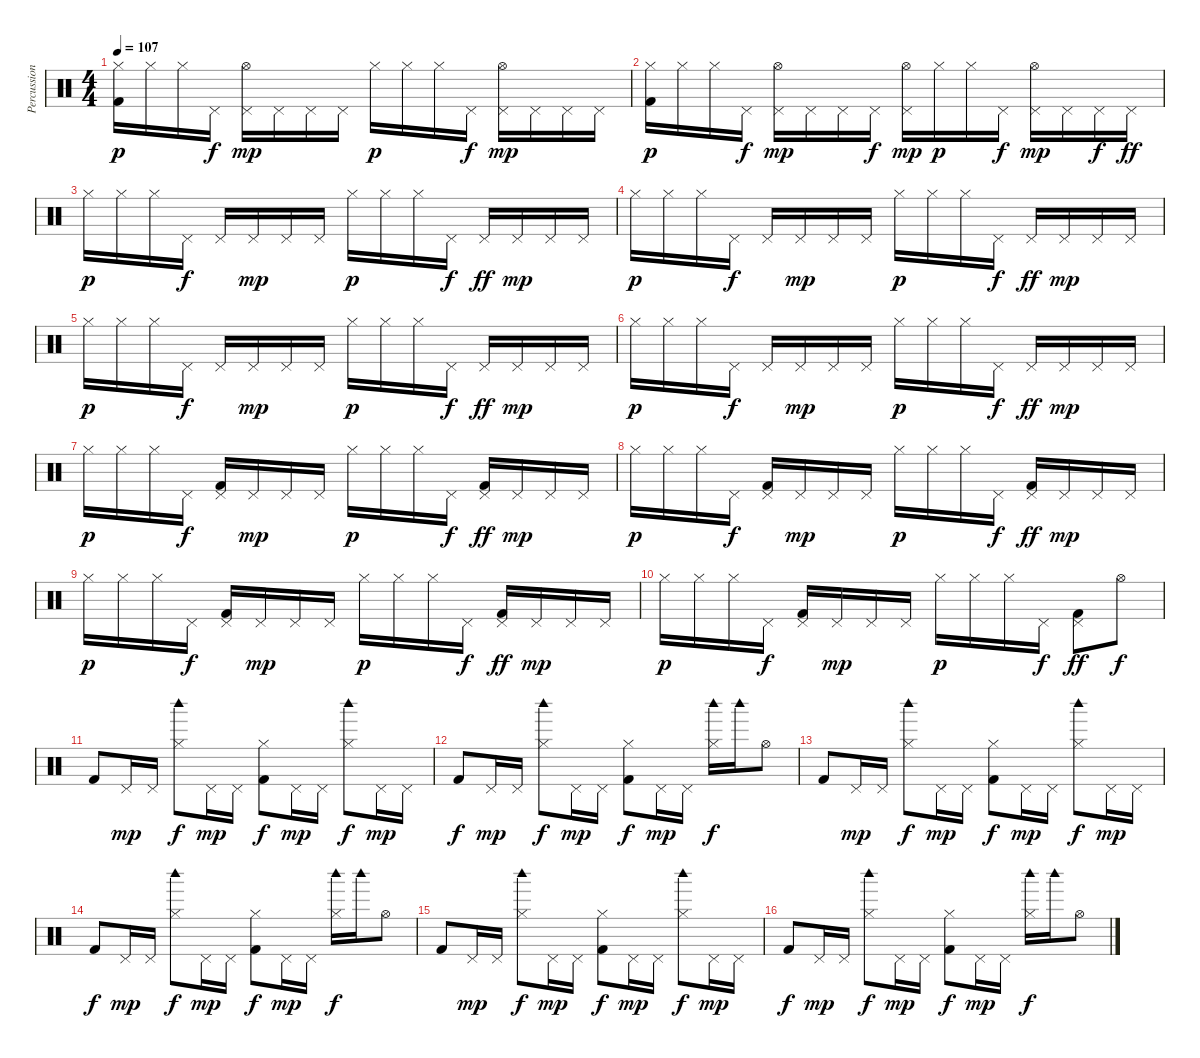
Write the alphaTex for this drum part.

\track ("Percussions" "Percussion") {instrument percussion}
\staff {score}
\articulation defaults
\ts (4 4)
\tempo 107
\clef neutral
\ks c
("Hi-Hat (closed)" "Kick (hit) 2").16{dy p} "Hi-Hat (closed)".16 "Hi-Hat (closed)".16 "Pedal Hi-Hat (hit)".16{dy f} ("Pedal Hi-Hat (hit)" "Hi-Hat (open)").16{dy mp} "Pedal Hi-Hat (hit)".16 "Pedal Hi-Hat (hit)".16 "Pedal Hi-Hat (hit)".16 "Hi-Hat (closed)".16{dy p} "Hi-Hat (closed)".16 "Hi-Hat (closed)".16 "Pedal Hi-Hat (hit)".16{dy f} ("Pedal Hi-Hat (hit)" "Hi-Hat (open)").16{dy mp} "Pedal Hi-Hat (hit)".16 "Pedal Hi-Hat (hit)".16 "Pedal Hi-Hat (hit)".16 |
("Hi-Hat (closed)" "Kick (hit) 2").16{dy p} "Hi-Hat (closed)".16 "Hi-Hat (closed)".16 "Pedal Hi-Hat (hit)".16{dy f} ("Pedal Hi-Hat (hit)" "Hi-Hat (open)").16{dy mp} "Pedal Hi-Hat (hit)".16 "Pedal Hi-Hat (hit)".16 "Pedal Hi-Hat (hit)".16{dy f} ("Pedal Hi-Hat (hit)" "Hi-Hat (open)").16{dy mp} "Hi-Hat (closed)".16{dy p} "Hi-Hat (closed)".16 "Pedal Hi-Hat (hit)".16{dy f} ("Pedal Hi-Hat (hit)" "Hi-Hat (open)").16{dy mp} "Pedal Hi-Hat (hit)".16 "Pedal Hi-Hat (hit)".16{dy f} "Pedal Hi-Hat (hit)".16{dy ff} |
"Hi-Hat (closed)".16{dy p} "Hi-Hat (closed)".16 "Hi-Hat (closed)".16 "Pedal Hi-Hat (hit)".16{dy f} "Pedal Hi-Hat (hit)".16 "Pedal Hi-Hat (hit)".16{dy mp} "Pedal Hi-Hat (hit)".16 "Pedal Hi-Hat (hit)".16 "Hi-Hat (closed)".16{dy p} "Hi-Hat (closed)".16 "Hi-Hat (closed)".16 "Pedal Hi-Hat (hit)".16{dy f} "Pedal Hi-Hat (hit)".16{dy ff} "Pedal Hi-Hat (hit)".16{dy mp} "Pedal Hi-Hat (hit)".16 "Pedal Hi-Hat (hit)".16 |
"Hi-Hat (closed)".16{dy p} "Hi-Hat (closed)".16 "Hi-Hat (closed)".16 "Pedal Hi-Hat (hit)".16{dy f} "Pedal Hi-Hat (hit)".16 "Pedal Hi-Hat (hit)".16{dy mp} "Pedal Hi-Hat (hit)".16 "Pedal Hi-Hat (hit)".16 "Hi-Hat (closed)".16{dy p} "Hi-Hat (closed)".16 "Hi-Hat (closed)".16 "Pedal Hi-Hat (hit)".16{dy f} "Pedal Hi-Hat (hit)".16{dy ff} "Pedal Hi-Hat (hit)".16{dy mp} "Pedal Hi-Hat (hit)".16 "Pedal Hi-Hat (hit)".16 |
"Hi-Hat (closed)".16{dy p} "Hi-Hat (closed)".16 "Hi-Hat (closed)".16 "Pedal Hi-Hat (hit)".16{dy f} "Pedal Hi-Hat (hit)".16 "Pedal Hi-Hat (hit)".16{dy mp} "Pedal Hi-Hat (hit)".16 "Pedal Hi-Hat (hit)".16 "Hi-Hat (closed)".16{dy p} "Hi-Hat (closed)".16 "Hi-Hat (closed)".16 "Pedal Hi-Hat (hit)".16{dy f} "Pedal Hi-Hat (hit)".16{dy ff} "Pedal Hi-Hat (hit)".16{dy mp} "Pedal Hi-Hat (hit)".16 "Pedal Hi-Hat (hit)".16 |
"Hi-Hat (closed)".16{dy p} "Hi-Hat (closed)".16 "Hi-Hat (closed)".16 "Pedal Hi-Hat (hit)".16{dy f} "Pedal Hi-Hat (hit)".16 "Pedal Hi-Hat (hit)".16{dy mp} "Pedal Hi-Hat (hit)".16 "Pedal Hi-Hat (hit)".16 "Hi-Hat (closed)".16{dy p} "Hi-Hat (closed)".16 "Hi-Hat (closed)".16 "Pedal Hi-Hat (hit)".16{dy f} "Pedal Hi-Hat (hit)".16{dy ff} "Pedal Hi-Hat (hit)".16{dy mp} "Pedal Hi-Hat (hit)".16 "Pedal Hi-Hat (hit)".16 |
"Hi-Hat (closed)".16{dy p} "Hi-Hat (closed)".16 "Hi-Hat (closed)".16 "Pedal Hi-Hat (hit)".16{dy f} ("Pedal Hi-Hat (hit)" "Kick (hit) 2").16 "Pedal Hi-Hat (hit)".16{dy mp} "Pedal Hi-Hat (hit)".16 "Pedal Hi-Hat (hit)".16 "Hi-Hat (closed)".16{dy p} "Hi-Hat (closed)".16 "Hi-Hat (closed)".16 "Pedal Hi-Hat (hit)".16{dy f} ("Pedal Hi-Hat (hit)" "Kick (hit) 2").16{dy ff} "Pedal Hi-Hat (hit)".16{dy mp} "Pedal Hi-Hat (hit)".16 "Pedal Hi-Hat (hit)".16 |
"Hi-Hat (closed)".16{dy p} "Hi-Hat (closed)".16 "Hi-Hat (closed)".16 "Pedal Hi-Hat (hit)".16{dy f} ("Pedal Hi-Hat (hit)" "Kick (hit) 2").16 "Pedal Hi-Hat (hit)".16{dy mp} "Pedal Hi-Hat (hit)".16 "Pedal Hi-Hat (hit)".16 "Hi-Hat (closed)".16{dy p} "Hi-Hat (closed)".16 "Hi-Hat (closed)".16 "Pedal Hi-Hat (hit)".16{dy f} ("Pedal Hi-Hat (hit)" "Kick (hit) 2").16{dy ff} "Pedal Hi-Hat (hit)".16{dy mp} "Pedal Hi-Hat (hit)".16 "Pedal Hi-Hat (hit)".16 |
"Hi-Hat (closed)".16{dy p} "Hi-Hat (closed)".16 "Hi-Hat (closed)".16 "Pedal Hi-Hat (hit)".16{dy f} ("Pedal Hi-Hat (hit)" "Kick (hit) 2").16 "Pedal Hi-Hat (hit)".16{dy mp} "Pedal Hi-Hat (hit)".16 "Pedal Hi-Hat (hit)".16 "Hi-Hat (closed)".16{dy p} "Hi-Hat (closed)".16 "Hi-Hat (closed)".16 "Pedal Hi-Hat (hit)".16{dy f} ("Pedal Hi-Hat (hit)" "Kick (hit) 2").16{dy ff} "Pedal Hi-Hat (hit)".16{dy mp} "Pedal Hi-Hat (hit)".16 "Pedal Hi-Hat (hit)".16 |
"Hi-Hat (closed)".16{dy p} "Hi-Hat (closed)".16 "Hi-Hat (closed)".16 "Pedal Hi-Hat (hit)".16{dy f} ("Pedal Hi-Hat (hit)" "Kick (hit) 2").16 "Pedal Hi-Hat (hit)".16{dy mp} "Pedal Hi-Hat (hit)".16 "Pedal Hi-Hat (hit)".16 "Hi-Hat (closed)".16{dy p} "Hi-Hat (closed)".16 "Hi-Hat (closed)".16 "Pedal Hi-Hat (hit)".16{dy f} ("Pedal Hi-Hat (hit)" "Kick (hit) 2").8{dy ff} "Hi-Hat (open)".8{dy f} |
"Kick (hit) 2".8 "Pedal Hi-Hat (hit)".16{dy mp} "Pedal Hi-Hat (hit)".16 ("Hi-Hat (closed)" "Woodblock high (hit)").8{dy f} "Pedal Hi-Hat (hit)".16{dy mp} "Pedal Hi-Hat (hit)".16 ("Hi-Hat (closed)" "Kick (hit) 2").8{dy f} "Pedal Hi-Hat (hit)".16{dy mp} "Pedal Hi-Hat (hit)".16 ("Hi-Hat (closed)" "Woodblock high (hit)").8{dy f} "Pedal Hi-Hat (hit)".16{dy mp} "Pedal Hi-Hat (hit)".16 |
"Kick (hit) 2".8{dy f} "Pedal Hi-Hat (hit)".16{dy mp} "Pedal Hi-Hat (hit)".16 ("Hi-Hat (closed)" "Woodblock high (hit)").8{dy f} "Pedal Hi-Hat (hit)".16{dy mp} "Pedal Hi-Hat (hit)".16 ("Hi-Hat (closed)" "Kick (hit) 2").8{dy f} "Pedal Hi-Hat (hit)".16{dy mp} "Pedal Hi-Hat (hit)".16 ("Hi-Hat (closed)" "Woodblock high (hit)").16{dy f} "Woodblock high (hit)".16 "Hi-Hat (open)".8 |
"Kick (hit) 2".8 "Pedal Hi-Hat (hit)".16{dy mp} "Pedal Hi-Hat (hit)".16 ("Hi-Hat (closed)" "Woodblock high (hit)").8{dy f} "Pedal Hi-Hat (hit)".16{dy mp} "Pedal Hi-Hat (hit)".16 ("Hi-Hat (closed)" "Kick (hit) 2").8{dy f} "Pedal Hi-Hat (hit)".16{dy mp} "Pedal Hi-Hat (hit)".16 ("Hi-Hat (closed)" "Woodblock high (hit)").8{dy f} "Pedal Hi-Hat (hit)".16{dy mp} "Pedal Hi-Hat (hit)".16 |
"Kick (hit) 2".8{dy f} "Pedal Hi-Hat (hit)".16{dy mp} "Pedal Hi-Hat (hit)".16 ("Hi-Hat (closed)" "Woodblock high (hit)").8{dy f} "Pedal Hi-Hat (hit)".16{dy mp} "Pedal Hi-Hat (hit)".16 ("Hi-Hat (closed)" "Kick (hit) 2").8{dy f} "Pedal Hi-Hat (hit)".16{dy mp} "Pedal Hi-Hat (hit)".16 ("Hi-Hat (closed)" "Woodblock high (hit)").16{dy f} "Woodblock high (hit)".16 "Hi-Hat (open)".8 |
"Kick (hit) 2".8 "Pedal Hi-Hat (hit)".16{dy mp} "Pedal Hi-Hat (hit)".16 ("Hi-Hat (closed)" "Woodblock high (hit)").8{dy f} "Pedal Hi-Hat (hit)".16{dy mp} "Pedal Hi-Hat (hit)".16 ("Hi-Hat (closed)" "Kick (hit) 2").8{dy f} "Pedal Hi-Hat (hit)".16{dy mp} "Pedal Hi-Hat (hit)".16 ("Hi-Hat (closed)" "Woodblock high (hit)").8{dy f} "Pedal Hi-Hat (hit)".16{dy mp} "Pedal Hi-Hat (hit)".16 |
"Kick (hit) 2".8{dy f} "Pedal Hi-Hat (hit)".16{dy mp} "Pedal Hi-Hat (hit)".16 ("Hi-Hat (closed)" "Woodblock high (hit)").8{dy f} "Pedal Hi-Hat (hit)".16{dy mp} "Pedal Hi-Hat (hit)".16 ("Hi-Hat (closed)" "Kick (hit) 2").8{dy f} "Pedal Hi-Hat (hit)".16{dy mp} "Pedal Hi-Hat (hit)".16 ("Hi-Hat (closed)" "Woodblock high (hit)").16{dy f} "Woodblock high (hit)".16 "Hi-Hat (open)".8
